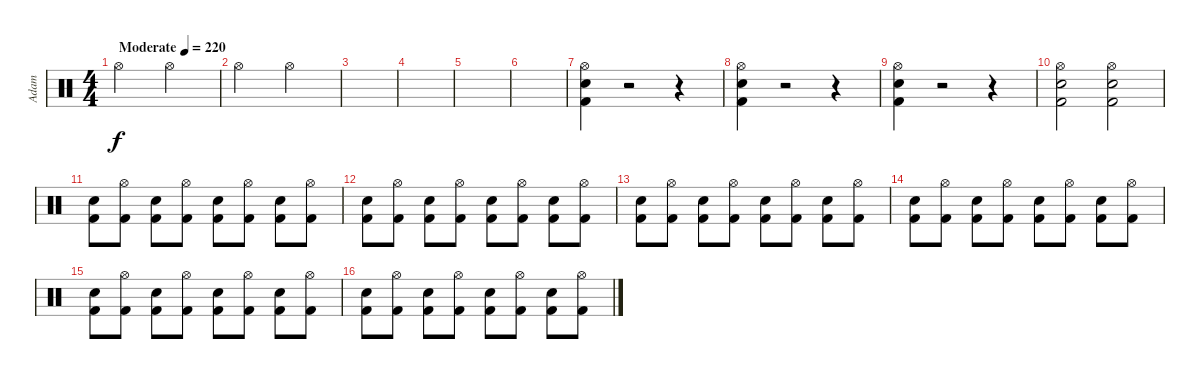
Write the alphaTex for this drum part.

\track ("Adam" "Adam") {instrument percussion}
\staff {score}
\articulation defaults
\ts (4 4)
\tempo (220 "Moderate")
\clef neutral
\ks c "Hi-Hat (open)".2{dy f} "Hi-Hat (open)".2
|
"Hi-Hat (open)".2 "Hi-Hat (open)".2 |
|
|
|
|
("Hi-Hat (open)" "Snare (hit) 2" "Kick (hit) 2").4 r.2 r.4 |
("Hi-Hat (open)" "Snare (hit) 2" "Kick (hit) 2").4 r.2 r.4 |
("Hi-Hat (open)" "Snare (hit) 2" "Kick (hit) 2").4 r.2 r.4 |
("Hi-Hat (open)" "Snare (hit) 2" "Kick (hit) 2").2 ("Hi-Hat (open)" "Snare (hit) 2" "Kick (hit) 2").2 |
("Snare (hit) 2" "Kick (hit) 2").8 ("Hi-Hat (open)" "Kick (hit) 2").8 ("Snare (hit) 2" "Kick (hit) 2").8 ("Hi-Hat (open)" "Kick (hit) 2").8 ("Snare (hit) 2" "Kick (hit) 2").8 ("Hi-Hat (open)" "Kick (hit) 2").8 ("Snare (hit) 2" "Kick (hit) 2").8 ("Hi-Hat (open)" "Kick (hit) 2").8 |
("Snare (hit) 2" "Kick (hit) 2").8 ("Hi-Hat (open)" "Kick (hit) 2").8 ("Snare (hit) 2" "Kick (hit) 2").8 ("Hi-Hat (open)" "Kick (hit) 2").8 ("Snare (hit) 2" "Kick (hit) 2").8 ("Hi-Hat (open)" "Kick (hit) 2").8 ("Snare (hit) 2" "Kick (hit) 2").8 ("Hi-Hat (open)" "Kick (hit) 2").8 |
("Snare (hit) 2" "Kick (hit) 2").8 ("Hi-Hat (open)" "Kick (hit) 2").8 ("Snare (hit) 2" "Kick (hit) 2").8 ("Hi-Hat (open)" "Kick (hit) 2").8 ("Snare (hit) 2" "Kick (hit) 2").8 ("Hi-Hat (open)" "Kick (hit) 2").8 ("Snare (hit) 2" "Kick (hit) 2").8 ("Hi-Hat (open)" "Kick (hit) 2").8 |
("Snare (hit) 2" "Kick (hit) 2").8 ("Hi-Hat (open)" "Kick (hit) 2").8 ("Snare (hit) 2" "Kick (hit) 2").8 ("Hi-Hat (open)" "Kick (hit) 2").8 ("Snare (hit) 2" "Kick (hit) 2").8 ("Hi-Hat (open)" "Kick (hit) 2").8 ("Snare (hit) 2" "Kick (hit) 2").8 ("Hi-Hat (open)" "Kick (hit) 2").8 |
("Snare (hit) 2" "Kick (hit) 2").8 ("Hi-Hat (open)" "Kick (hit) 2").8 ("Snare (hit) 2" "Kick (hit) 2").8 ("Hi-Hat (open)" "Kick (hit) 2").8 ("Snare (hit) 2" "Kick (hit) 2").8 ("Hi-Hat (open)" "Kick (hit) 2").8 ("Snare (hit) 2" "Kick (hit) 2").8 ("Hi-Hat (open)" "Kick (hit) 2").8 |
("Snare (hit) 2" "Kick (hit) 2").8 ("Hi-Hat (open)" "Kick (hit) 2").8 ("Snare (hit) 2" "Kick (hit) 2").8 ("Hi-Hat (open)" "Kick (hit) 2").8 ("Snare (hit) 2" "Kick (hit) 2").8 ("Hi-Hat (open)" "Kick (hit) 2").8 ("Snare (hit) 2" "Kick (hit) 2").8 ("Hi-Hat (open)" "Kick (hit) 2").8
